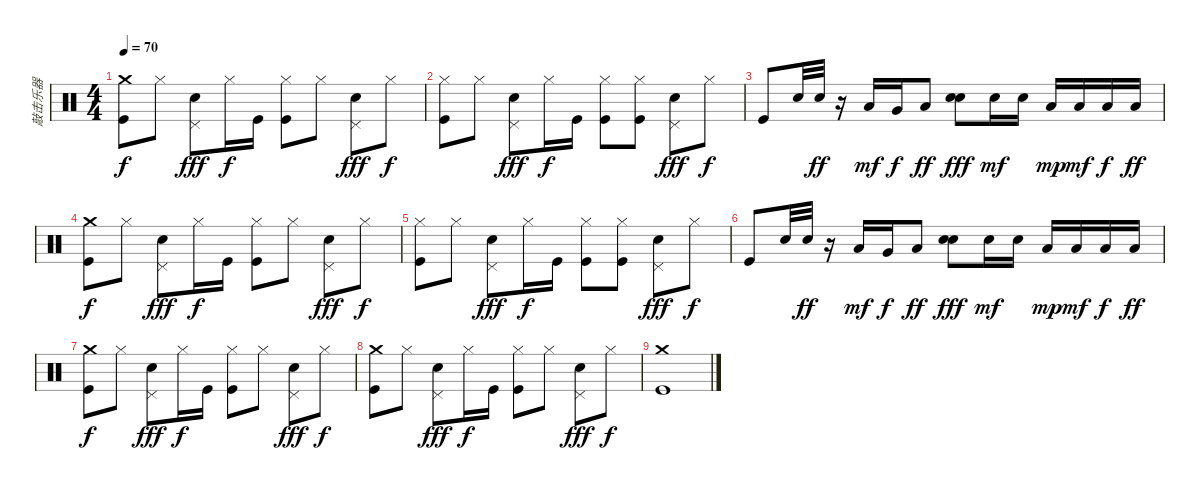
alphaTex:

\track ("敲击乐器" "敲击乐器") {instrument percussion}
\staff {score}
\articulation defaults
\ts (4 4)
\tempo 70
\clef neutral
\ks c
("Crash medium (hit)" "Kick (hit)").8{dy f} "Hi-Hat (closed)".8 ("Pedal Hi-Hat (hit)" "Snare (hit) 2").8{dy fff} "Hi-Hat (closed)".16{dy f} "Kick (hit)".16 ("Hi-Hat (closed)" "Kick (hit)").8 "Hi-Hat (closed)".8 ("Pedal Hi-Hat (hit)" "Snare (hit) 2").8{dy fff} "Hi-Hat (closed)".8{dy f} |
("Hi-Hat (closed)" "Kick (hit)").8 "Hi-Hat (closed)".8 ("Pedal Hi-Hat (hit)" "Snare (hit) 2").8{dy fff} "Hi-Hat (closed)".16{dy f} "Kick (hit)".16 ("Hi-Hat (closed)" "Kick (hit)").8 ("Hi-Hat (closed)" "Kick (hit)").8 ("Pedal Hi-Hat (hit)" "Snare (hit) 2").8{dy fff} "Hi-Hat (closed)".8{dy f} |
"Kick (hit)".8 "Electric Snare (hit)".32 "Snare (hit) 2".32{dy ff} r.16 "Low Tom (hit)".16{dy mf} "Very Low Tom (hit)".16{dy f} "Low Floor Tom (hit)".8{dy ff} ("Electric Snare (hit)" "Electric Snare (hit)").8{dy fff} "Snare (hit) 2".16{dy mf} "Snare (hit) 2".16 "Low Floor Tom (hit)".16{dy mp} "Low Floor Tom (hit)".16{dy mf} "Low Floor Tom (hit)".16{dy f} "Low Floor Tom (hit)".16{dy ff} |
("Crash medium (hit)" "Kick (hit)").8{dy f} "Hi-Hat (closed)".8 ("Pedal Hi-Hat (hit)" "Snare (hit) 2").8{dy fff} "Hi-Hat (closed)".16{dy f} "Kick (hit)".16 ("Hi-Hat (closed)" "Kick (hit)").8 "Hi-Hat (closed)".8 ("Pedal Hi-Hat (hit)" "Snare (hit) 2").8{dy fff} "Hi-Hat (closed)".8{dy f} |
("Hi-Hat (closed)" "Kick (hit)").8 "Hi-Hat (closed)".8 ("Pedal Hi-Hat (hit)" "Snare (hit) 2").8{dy fff} "Hi-Hat (closed)".16{dy f} "Kick (hit)".16 ("Hi-Hat (closed)" "Kick (hit)").8 ("Hi-Hat (closed)" "Kick (hit)").8 ("Pedal Hi-Hat (hit)" "Snare (hit) 2").8{dy fff} "Hi-Hat (closed)".8{dy f} |
"Kick (hit)".8 "Electric Snare (hit)".32 "Snare (hit) 2".32{dy ff} r.16 "Low Tom (hit)".16{dy mf} "Very Low Tom (hit)".16{dy f} "Low Floor Tom (hit)".8{dy ff} ("Electric Snare (hit)" "Electric Snare (hit)").8{dy fff} "Snare (hit) 2".16{dy mf} "Snare (hit) 2".16 "Low Floor Tom (hit)".16{dy mp} "Low Floor Tom (hit)".16{dy mf} "Low Floor Tom (hit)".16{dy f} "Low Floor Tom (hit)".16{dy ff} |
("Crash medium (hit)" "Kick (hit)").8{dy f} "Hi-Hat (closed)".8 ("Pedal Hi-Hat (hit)" "Snare (hit) 2").8{dy fff} "Hi-Hat (closed)".16{dy f} "Kick (hit)".16 ("Hi-Hat (closed)" "Kick (hit)").8 "Hi-Hat (closed)".8 ("Pedal Hi-Hat (hit)" "Snare (hit) 2").8{dy fff} "Hi-Hat (closed)".8{dy f} |
("Crash medium (hit)" "Kick (hit)").8 "Hi-Hat (closed)".8 ("Pedal Hi-Hat (hit)" "Snare (hit) 2").8{dy fff} "Hi-Hat (closed)".16{dy f} "Kick (hit)".16 ("Hi-Hat (closed)" "Kick (hit)").8 "Hi-Hat (closed)".8 ("Pedal Hi-Hat (hit)" "Snare (hit) 2").8{dy fff} "Hi-Hat (closed)".8{dy f} |
("Crash medium (hit)" "Kick (hit)").1
